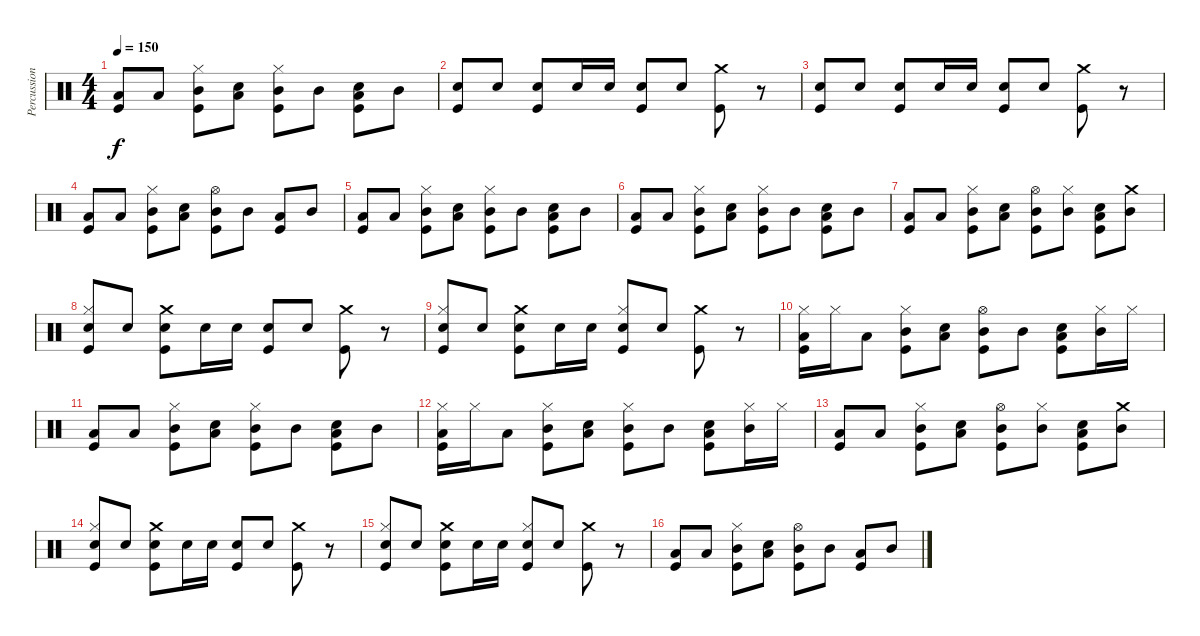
\track ("Percussions" "Percussion") {instrument percussion}
\staff {score}
\articulation defaults
\ts (4 4)
\tempo 150
\clef neutral
\ks c
("Low Tom (hit)" "Kick (hit)").8{dy f} "Low Tom (hit)".8 ("Mid Tom (hit)" "Hi-Hat (closed)" "Kick (hit)").8 ("Low Tom (hit)" "Electric Snare (hit)").8 ("Mid Tom (hit)" "Hi-Hat (closed)" "Kick (hit)").8 "Mid Tom (hit)".8 ("Low Tom (hit)" "Electric Snare (hit)" "Kick (hit)").8 "Mid Tom (hit)".8 |
("Electric Snare (hit)" "Kick (hit)").8 "Electric Snare (hit)".8 ("Electric Snare (hit)" "Kick (hit)").8 "Electric Snare (hit)".16 "Electric Snare (hit)".16 ("Electric Snare (hit)" "Kick (hit)").8 "Electric Snare (hit)".8 ("Crash medium (hit)" "Kick (hit)").8 r.8 |
("Electric Snare (hit)" "Kick (hit)").8 "Electric Snare (hit)".8 ("Electric Snare (hit)" "Kick (hit)").8 "Electric Snare (hit)".16 "Electric Snare (hit)".16 ("Electric Snare (hit)" "Kick (hit)").8 "Electric Snare (hit)".8 ("Crash medium (hit)" "Kick (hit)").8 r.8 |
("Low Tom (hit)" "Kick (hit)").8 "Low Tom (hit)".8 ("Mid Tom (hit)" "Hi-Hat (closed)" "Kick (hit)").8 ("Low Tom (hit)" "Electric Snare (hit)").8 ("Mid Tom (hit)" "Hi-Hat (open)" "Kick (hit)").8 "Mid Tom (hit)".8 ("Low Tom (hit)" "Kick (hit)").8 "Mid Tom (hit)".8 |
("Low Tom (hit)" "Kick (hit)").8 "Low Tom (hit)".8 ("Mid Tom (hit)" "Hi-Hat (closed)" "Kick (hit)").8 ("Low Tom (hit)" "Electric Snare (hit)").8 ("Mid Tom (hit)" "Hi-Hat (closed)" "Kick (hit)").8 "Mid Tom (hit)".8 ("Low Tom (hit)" "Electric Snare (hit)" "Kick (hit)").8 "Mid Tom (hit)".8 |
("Low Tom (hit)" "Kick (hit)").8 "Low Tom (hit)".8 ("Mid Tom (hit)" "Hi-Hat (closed)" "Kick (hit)").8 ("Low Tom (hit)" "Electric Snare (hit)").8 ("Mid Tom (hit)" "Hi-Hat (closed)" "Kick (hit)").8 "Mid Tom (hit)".8 ("Low Tom (hit)" "Electric Snare (hit)" "Kick (hit)").8 "Mid Tom (hit)".8 |
("Low Tom (hit)" "Kick (hit)").8 "Low Tom (hit)".8 ("Mid Tom (hit)" "Hi-Hat (closed)" "Kick (hit)").8 ("Low Tom (hit)" "Electric Snare (hit)").8 ("Mid Tom (hit)" "Hi-Hat (open)" "Kick (hit)").8 ("Mid Tom (hit)" "Hi-Hat (closed)").8 ("Low Tom (hit)" "Electric Snare (hit)" "Kick (hit)").8 ("Mid Tom (hit)" "Crash medium (hit)").8 |
("Electric Snare (hit)" "Hi-Hat (closed)" "Kick (hit)").8 "Electric Snare (hit)".8 ("Electric Snare (hit)" "Crash medium (hit)" "Kick (hit)").8 "Electric Snare (hit)".16 "Electric Snare (hit)".16 ("Electric Snare (hit)" "Kick (hit)").8 "Electric Snare (hit)".8 ("Crash medium (hit)" "Kick (hit)").8 r.8 |
("Electric Snare (hit)" "Hi-Hat (closed)" "Kick (hit)").8 "Electric Snare (hit)".8 ("Electric Snare (hit)" "Crash medium (hit)" "Kick (hit)").8 "Electric Snare (hit)".16 "Electric Snare (hit)".16 ("Electric Snare (hit)" "Hi-Hat (closed)" "Kick (hit)").8 "Electric Snare (hit)".8 ("Crash medium (hit)" "Kick (hit)").8 r.8 |
("Low Tom (hit)" "Hi-Hat (closed)" "Kick (hit)").16 "Hi-Hat (closed)".16 "Low Tom (hit)".8 ("Mid Tom (hit)" "Hi-Hat (closed)" "Kick (hit)").8 ("Low Tom (hit)" "Electric Snare (hit)").8 ("Mid Tom (hit)" "Hi-Hat (open)" "Kick (hit)").8 "Mid Tom (hit)".8 ("Low Tom (hit)" "Electric Snare (hit)" "Kick (hit)").8 ("Mid Tom (hit)" "Hi-Hat (closed)").16 "Hi-Hat (closed)".16 |
("Low Tom (hit)" "Kick (hit)").8 "Low Tom (hit)".8 ("Mid Tom (hit)" "Hi-Hat (closed)" "Kick (hit)").8 ("Low Tom (hit)" "Electric Snare (hit)").8 ("Mid Tom (hit)" "Hi-Hat (closed)" "Kick (hit)").8 "Mid Tom (hit)".8 ("Low Tom (hit)" "Electric Snare (hit)" "Kick (hit)").8 "Mid Tom (hit)".8 |
("Low Tom (hit)" "Hi-Hat (closed)" "Kick (hit)").16 "Hi-Hat (closed)".16 "Low Tom (hit)".8 ("Mid Tom (hit)" "Hi-Hat (closed)" "Kick (hit)").8 ("Low Tom (hit)" "Electric Snare (hit)").8 ("Mid Tom (hit)" "Hi-Hat (closed)" "Kick (hit)").8 "Mid Tom (hit)".8 ("Low Tom (hit)" "Electric Snare (hit)" "Kick (hit)").8 ("Mid Tom (hit)" "Hi-Hat (closed)").16 "Hi-Hat (closed)".16 |
("Low Tom (hit)" "Kick (hit)").8 "Low Tom (hit)".8 ("Mid Tom (hit)" "Hi-Hat (closed)" "Kick (hit)").8 ("Low Tom (hit)" "Electric Snare (hit)").8 ("Mid Tom (hit)" "Hi-Hat (open)" "Kick (hit)").8 ("Mid Tom (hit)" "Hi-Hat (closed)").8 ("Low Tom (hit)" "Electric Snare (hit)" "Kick (hit)").8 ("Mid Tom (hit)" "Crash medium (hit)").8 |
("Electric Snare (hit)" "Hi-Hat (closed)" "Kick (hit)").8 "Electric Snare (hit)".8 ("Electric Snare (hit)" "Crash medium (hit)" "Kick (hit)").8 "Electric Snare (hit)".16 "Electric Snare (hit)".16 ("Electric Snare (hit)" "Kick (hit)").8 "Electric Snare (hit)".8 ("Crash medium (hit)" "Kick (hit)").8 r.8 |
("Electric Snare (hit)" "Hi-Hat (closed)" "Kick (hit)").8 "Electric Snare (hit)".8 ("Electric Snare (hit)" "Crash medium (hit)" "Kick (hit)").8 "Electric Snare (hit)".16 "Electric Snare (hit)".16 ("Electric Snare (hit)" "Hi-Hat (closed)" "Kick (hit)").8 "Electric Snare (hit)".8 ("Crash medium (hit)" "Kick (hit)").8 r.8 |
("Low Tom (hit)" "Kick (hit)").8 "Low Tom (hit)".8 ("Mid Tom (hit)" "Hi-Hat (closed)" "Kick (hit)").8 ("Low Tom (hit)" "Electric Snare (hit)").8 ("Mid Tom (hit)" "Hi-Hat (open)" "Kick (hit)").8 "Mid Tom (hit)".8 ("Low Tom (hit)" "Kick (hit)").8 "Mid Tom (hit)".8
